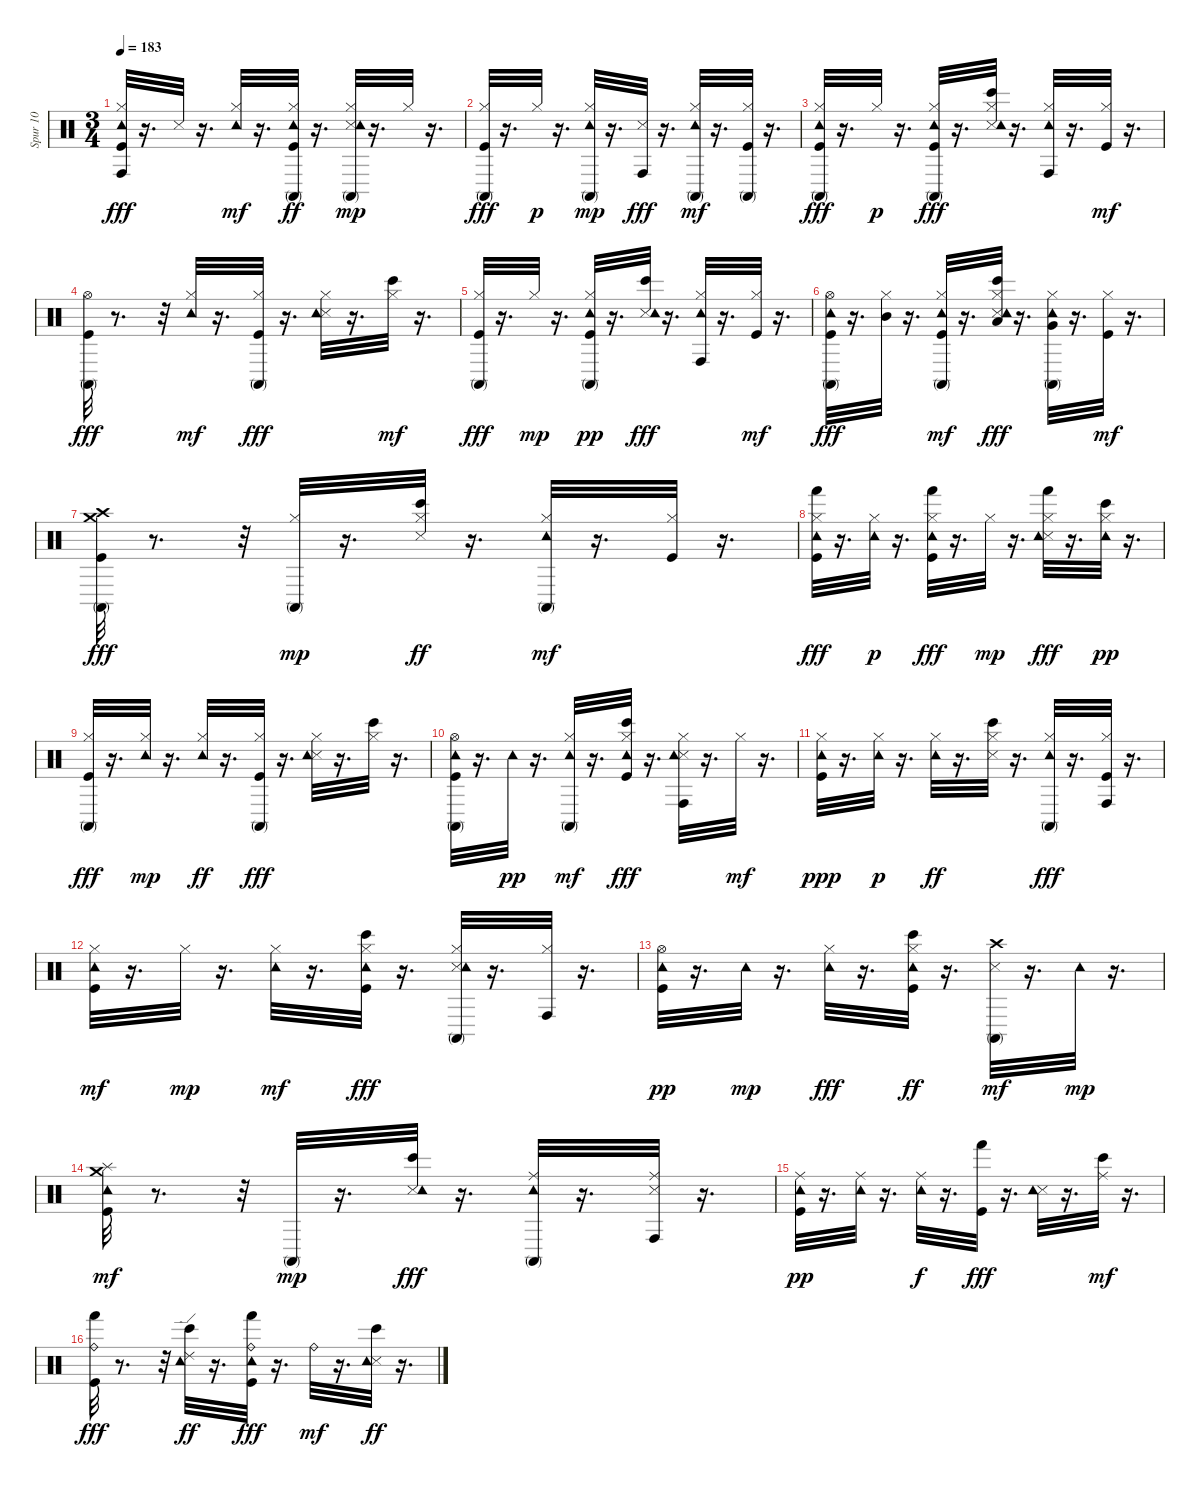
\track ("Spur 10" "Spur 10") {instrument percussion}
\staff {score}
\articulation defaults
\ts (3 4)
\tempo 183
\clef neutral
\ks c
("Kick (hit)" "Hi-Hat (closed)" "Tambourine (hit)" "Conga high (hit)").32{dy fff} r.16{d} "Snare (side stick) 3".32 r.16{d} ("Hi-Hat (closed)" "Tambourine (hit)").32{dy mf} r.16{d} ("Kick (hit)" "Hi-Hat (closed)" "Tambourine (hit)" "Conga high (mute)").32{dy ff} r.16{d} ("Snare (side stick) 3" "Hi-Hat (closed)" "Tambourine (hit)" "Conga high (mute)").32{dy mp} r.16{d} "Hi-Hat (closed)".32 r.16{d} |
("Kick (hit)" "Hi-Hat (closed)" "Conga high (mute)").32{dy fff} r.16{d} "Hi-Hat (closed)".32{dy p} r.16{d} ("Hi-Hat (closed)" "Tambourine (hit)" "Conga high (mute)").32{dy mp} r.16{d} ("Snare (side stick) 3" "Conga high (hit)").32{dy fff} r.16{d} ("Hi-Hat (closed)" "Tambourine (hit)" "Conga high (mute)").32{dy mf} r.16{d} ("Kick (hit)" "Hi-Hat (closed)" "Conga high (mute)").32 r.16{d} |
("Kick (hit)" "Hi-Hat (closed)" "Tambourine (hit)" "Conga high (mute)").32{dy fff} r.16{d} "Hi-Hat (closed)".32{dy p} r.16{d} ("Kick (hit)" "Hi-Hat (closed)" "Tambourine (hit)" "Conga high (mute)").32{dy fff} r.16{d} ("Snare (side stick) 3" "Hi-Hat (closed)" "Tambourine (hit)" "Bongo High (hit)").32 r.16{d} ("Hi-Hat (closed)" "Tambourine (hit)" "Conga high (hit)").32 r.16{d} ("Kick (hit)" "Hi-Hat (closed)").32{dy mf} r.16{d} |
("Kick (hit)" "Hi-Hat (open)" "Conga high (mute)").32{dy fff} r.8{d} r.32 ("Hi-Hat (closed)" "Tambourine (hit)").32{dy mf} r.16{d} ("Kick (hit)" "Hi-Hat (closed)" "Conga high (mute)").32{dy fff} r.16{d} ("Snare (side stick) 3" "Hi-Hat (closed)" "Tambourine (hit)").32 r.16{d} ("Hi-Hat (closed)" "Bongo High (hit)").32{dy mf} r.16{d} |
("Kick (hit)" "Hi-Hat (closed)" "Conga high (mute)").32{dy fff} r.16{d} "Hi-Hat (closed)".32{dy mp} r.16{d} ("Kick (hit)" "Hi-Hat (closed)" "Tambourine (hit)" "Conga high (mute)").32{dy pp} r.16{d} ("Snare (side stick) 3" "Tambourine (hit)" "Bongo High (hit)").32{dy fff} r.16{d} ("Hi-Hat (closed)" "Tambourine (hit)" "Conga high (hit)").32 r.16{d} ("Kick (hit)" "Hi-Hat (closed)").32{dy mf} r.16{d} |
("Kick (hit)" "Hi-Hat (open)" "Tambourine (hit)" "Conga high (mute)").32{dy fff} r.16{d} ("Hi-Hat (closed)" "Mid Tom (hit)").32 r.16{d} ("Kick (hit)" "Hi-Hat (closed)" "Tambourine (hit)" "Conga high (mute)").32{dy mf} r.16{d} ("Snare (side stick) 3" "Hi-Hat (closed)" "Low Tom (hit)" "Tambourine (hit)" "Bongo High (hit)").32{dy fff} r.16{d} ("Hi-Hat (closed)" "Very Low Tom (hit)" "Tambourine (hit)" "Conga high (mute)").32 r.16{d} ("Kick (hit)" "Hi-Hat (closed)").32{dy mf} r.16{d} |
("Kick (hit)" "Crash high (hit)" "Crash medium (hit)" "Conga high (mute)").32{dy fff} r.8{d} r.32 ("Hi-Hat (closed)" "Conga high (mute)").32{dy mp} r.16{d} ("Snare (side stick) 3" "Hi-Hat (closed)" "Bongo High (hit)").32{dy ff} r.16{d} ("Hi-Hat (closed)" "Tambourine (hit)" "Conga high (mute)").32{dy mf} r.16{d} ("Kick (hit)" "Hi-Hat (closed)").32 r.16{d} |
("Kick (hit)" "Hi-Hat (closed)" "Tambourine (hit)" "Hand (hit)").32{dy fff} r.16{d} ("Hi-Hat (closed)" "Tambourine (hit)").32{dy p} r.16{d} ("Kick (hit)" "Hi-Hat (closed)" "Tambourine (hit)" "Hand (hit)").32{dy fff} r.16{d} "Hi-Hat (closed)".32{dy mp} r.16{d} ("Snare (side stick) 3" "Hi-Hat (closed)" "Tambourine (hit)" "Hand (hit)").32{dy fff} r.16{d} ("Hi-Hat (closed)" "Tambourine (hit)" "Bongo High (hit)").32{dy pp} r.16{d} |
("Kick (hit)" "Hi-Hat (closed)" "Conga high (mute)").32{dy fff} r.16{d} ("Hi-Hat (closed)" "Tambourine (hit)").32{dy mp} r.16{d} ("Hi-Hat (closed)" "Tambourine (hit)").32{dy ff} r.16{d} ("Kick (hit)" "Hi-Hat (closed)" "Conga high (mute)").32{dy fff} r.16{d} ("Snare (side stick) 3" "Hi-Hat (closed)" "Tambourine (hit)").32 r.16{d} ("Hi-Hat (closed)" "Bongo High (hit)").32 r.16{d} |
("Kick (hit)" "Hi-Hat (open)" "Tambourine (hit)" "Conga high (mute)").32 r.16{d} "Tambourine (hit)".32{dy pp} r.16{d} ("Hi-Hat (closed)" "Tambourine (hit)" "Conga high (mute)").32{dy mf} r.16{d} ("Kick (hit)" "Hi-Hat (closed)" "Tambourine (hit)" "Bongo High (hit)").32{dy fff} r.16{d} ("Snare (side stick) 3" "Hi-Hat (closed)" "Tambourine (hit)" "Conga high (hit)").32 r.16{d} "Hi-Hat (closed)".32{dy mf} r.16{d} |
("Kick (hit)" "Hi-Hat (closed)" "Tambourine (hit)").32{dy ppp} r.16{d} ("Hi-Hat (closed)" "Tambourine (hit)").32{dy p} r.16{d} ("Hi-Hat (closed)" "Tambourine (hit)").32{dy ff} r.16{d} ("Snare (side stick) 3" "Hi-Hat (closed)" "Bongo High (hit)").32 r.16{d} ("Hi-Hat (closed)" "Tambourine (hit)" "Conga high (mute)").32{dy fff} r.16{d} ("Kick (hit)" "Hi-Hat (closed)" "Conga high (hit)").32 r.16{d} |
("Kick (hit)" "Hi-Hat (closed)" "Tambourine (hit)").32{dy mf} r.16{d} "Hi-Hat (closed)".32{dy mp} r.16{d} ("Hi-Hat (closed)" "Tambourine (hit)").32{dy mf} r.16{d} ("Kick (hit)" "Hi-Hat (closed)" "Tambourine (hit)" "Bongo High (hit)").32{dy fff} r.16{d} ("Snare (side stick) 3" "Hi-Hat (closed)" "Tambourine (hit)" "Conga high (mute)").32 r.16{d} ("Hi-Hat (closed)" "Conga high (hit)").32 r.16{d} |
("Kick (hit)" "Hi-Hat (open)" "Tambourine (hit)").32{dy pp} r.16{d} "Tambourine (hit)".32{dy mp} r.16{d} ("Hi-Hat (closed)" "Tambourine (hit)").32{dy fff} r.16{d} ("Kick (hit)" "Hi-Hat (closed)" "Tambourine (hit)" "Bongo High (hit)").32{dy ff} r.16{d} ("Snare (side stick) 3" "Crash high (hit)" "Conga high (mute)").32{dy mf} r.16{d} "Tambourine (hit)".32{dy mp} r.16{d} |
("Kick (hit)" "Tambourine (hit)" "Splash (hit)" "Crash medium (hit)").32{dy mf} r.8{d} r.32 "Conga high (mute)".32{dy mp} r.16{d} ("Snare (side stick) 3" "Tambourine (hit)" "Bongo High (hit)").32{dy fff} r.16{d} ("Ride (middle)" "Tambourine (hit)" "Conga high (mute)").32 r.16{d} ("Snare (side stick) 3" "Ride (middle)" "Conga high (hit)").32 r.16{d} |
("Kick (hit)" "Ride (middle)" "Tambourine (hit)").32{dy pp} r.16{d} ("Ride (middle)" "Tambourine (hit)").32 r.16{d} ("Ride (middle)" "Tambourine (hit)").32{dy f} r.16{d} ("Kick (hit)" "Hand (hit)").32{dy fff} r.16{d} ("Snare (side stick) 3" "Tambourine (hit)").32 r.16{d} ("Ride (middle)" "Bongo High (hit)").32{dy mf} r.16{d} |
("Kick (hit)" "Ride (bell)" "Hand (hit)").32{dy fff} r.8{d} r.32 ("Tambourine (hit)" "Ride (edge) 2" "Bongo High (hit)").32{dy ff} r.16{d} ("Kick (hit)" "Ride (bell)" "Tambourine (hit)" "Hand (hit)").32{dy fff} r.16{d} "Ride (bell)".32{dy mf} r.16{d} ("Snare (side stick) 3" "Tambourine (hit)" "Bongo High (hit)").32{dy ff} r.16{d}
